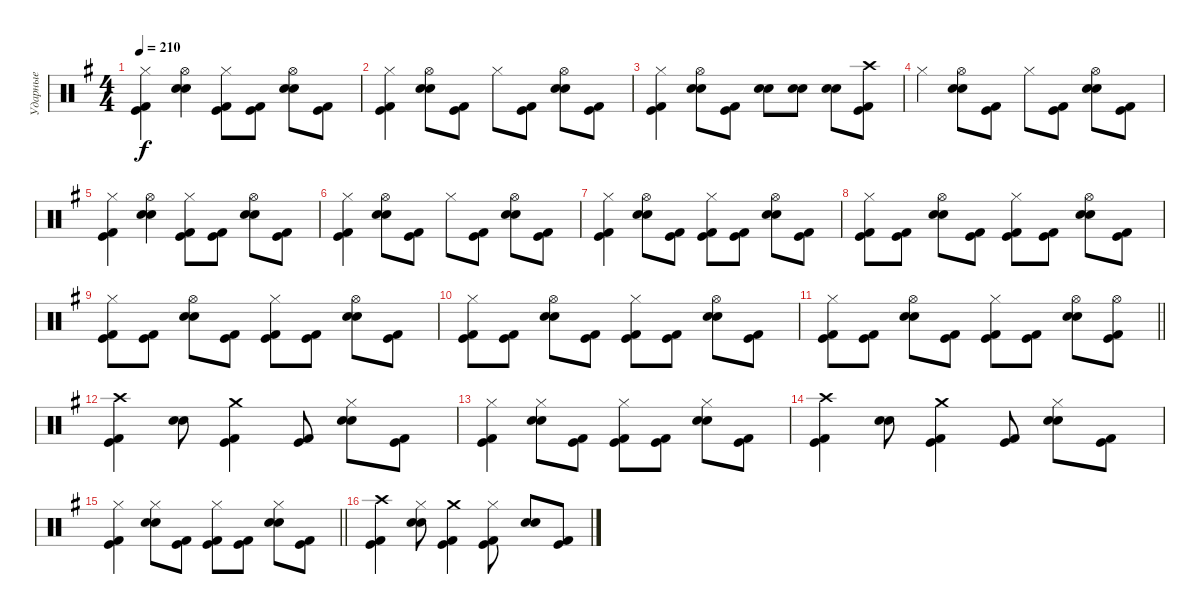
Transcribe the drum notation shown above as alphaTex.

\track ("Ударные" "Ударные") {instrument percussion}
\staff {score}
\articulation defaults
\ts (4 4)
\tempo 210
\clef neutral
\ks g
("Hi-Hat (closed)" "Kick (hit) 2" "Kick (hit)").4{dy f} ("Hi-Hat (open)" "Electric Snare (hit)" "Snare (hit) 2").4 ("Hi-Hat (closed)" "Kick (hit) 2" "Kick (hit)").8 ("Kick (hit) 2" "Kick (hit)").8 ("Hi-Hat (open)" "Electric Snare (hit)" "Snare (hit) 2").8 ("Kick (hit) 2" "Kick (hit)").8 |
("Hi-Hat (closed)" "Kick (hit) 2" "Kick (hit)").4 ("Hi-Hat (open)" "Electric Snare (hit)" "Snare (hit) 2").8 ("Kick (hit) 2" "Kick (hit)").8 "Hi-Hat (closed)".8 ("Kick (hit) 2" "Kick (hit)").8 ("Hi-Hat (open)" "Electric Snare (hit)" "Snare (hit) 2").8 ("Kick (hit) 2" "Kick (hit)").8 |
("Hi-Hat (closed)" "Kick (hit) 2" "Kick (hit)").4 ("Hi-Hat (open)" "Electric Snare (hit)" "Snare (hit) 2").8 ("Kick (hit) 2" "Kick (hit)").8 ("Electric Snare (hit)" "Snare (hit) 2").8 ("Electric Snare (hit)" "Snare (hit) 2").8 ("Electric Snare (hit)" "Snare (hit) 2").8 ("Crash high (hit)" "Kick (hit) 2" "Kick (hit)").8 |
"Hi-Hat (closed)".4 ("Hi-Hat (open)" "Electric Snare (hit)" "Snare (hit) 2").8 ("Kick (hit) 2" "Kick (hit)").8 "Hi-Hat (closed)".8 ("Kick (hit) 2" "Kick (hit)").8 ("Hi-Hat (open)" "Electric Snare (hit)" "Snare (hit) 2").8 ("Kick (hit) 2" "Kick (hit)").8 |
("Hi-Hat (closed)" "Kick (hit) 2" "Kick (hit)").4 ("Hi-Hat (open)" "Electric Snare (hit)" "Snare (hit) 2").4 ("Hi-Hat (closed)" "Kick (hit) 2" "Kick (hit)").8 ("Kick (hit) 2" "Kick (hit)").8 ("Hi-Hat (open)" "Electric Snare (hit)" "Snare (hit) 2").8 ("Kick (hit) 2" "Kick (hit)").8 |
("Hi-Hat (closed)" "Kick (hit) 2" "Kick (hit)").4 ("Hi-Hat (open)" "Electric Snare (hit)" "Snare (hit) 2").8 ("Kick (hit) 2" "Kick (hit)").8 "Hi-Hat (closed)".8 ("Kick (hit) 2" "Kick (hit)").8 ("Hi-Hat (open)" "Electric Snare (hit)" "Snare (hit) 2").8 ("Kick (hit) 2" "Kick (hit)").8 |
("Hi-Hat (closed)" "Kick (hit) 2" "Kick (hit)").4 ("Hi-Hat (open)" "Electric Snare (hit)" "Snare (hit) 2").8 ("Kick (hit) 2" "Kick (hit)").8 ("Hi-Hat (closed)" "Kick (hit) 2" "Kick (hit)").8 ("Kick (hit) 2" "Kick (hit)").8 ("Hi-Hat (open)" "Electric Snare (hit)" "Snare (hit) 2").8 ("Kick (hit) 2" "Kick (hit)").8 |
("Hi-Hat (closed)" "Kick (hit) 2" "Kick (hit)").8 ("Kick (hit) 2" "Kick (hit)").8 ("Hi-Hat (open)" "Electric Snare (hit)" "Snare (hit) 2").8 ("Kick (hit) 2" "Kick (hit)").8 ("Hi-Hat (closed)" "Kick (hit) 2" "Kick (hit)").8 ("Kick (hit) 2" "Kick (hit)").8 ("Hi-Hat (open)" "Electric Snare (hit)" "Snare (hit) 2").8 ("Kick (hit) 2" "Kick (hit)").8 |
("Hi-Hat (closed)" "Kick (hit) 2" "Kick (hit)").8 ("Kick (hit) 2" "Kick (hit)").8 ("Hi-Hat (open)" "Electric Snare (hit)" "Snare (hit) 2").8 ("Kick (hit) 2" "Kick (hit)").8 ("Hi-Hat (closed)" "Kick (hit) 2" "Kick (hit)").8 ("Kick (hit) 2" "Kick (hit)").8 ("Hi-Hat (open)" "Electric Snare (hit)" "Snare (hit) 2").8 ("Kick (hit) 2" "Kick (hit)").8 |
("Hi-Hat (closed)" "Kick (hit) 2" "Kick (hit)").8 ("Kick (hit) 2" "Kick (hit)").8 ("Hi-Hat (open)" "Electric Snare (hit)" "Snare (hit) 2").8 ("Kick (hit) 2" "Kick (hit)").8 ("Hi-Hat (closed)" "Kick (hit) 2" "Kick (hit)").8 ("Kick (hit) 2" "Kick (hit)").8 ("Hi-Hat (open)" "Electric Snare (hit)" "Snare (hit) 2").8 ("Kick (hit) 2" "Kick (hit)").8 |
\barLineRight lightlight
("Hi-Hat (closed)" "Kick (hit) 2" "Kick (hit)").8 ("Kick (hit) 2" "Kick (hit)").8 ("Hi-Hat (open)" "Electric Snare (hit)" "Snare (hit) 2").8 ("Kick (hit) 2" "Kick (hit)").8 ("Hi-Hat (closed)" "Kick (hit) 2" "Kick (hit)").8 ("Kick (hit) 2" "Kick (hit)").8 ("Hi-Hat (open)" "Electric Snare (hit)" "Snare (hit) 2").8 ("Hi-Hat (open)" "Kick (hit) 2" "Kick (hit)").8 |
\section ("" "")
("Crash high (hit)" "Kick (hit) 2" "Kick (hit)").4 ("Electric Snare (hit)" "Snare (hit) 2").8 ("Crash medium (hit)" "Kick (hit) 2" "Kick (hit)").4 ("Kick (hit) 2" "Kick (hit)").8 ("Hi-Hat (closed)" "Electric Snare (hit)" "Snare (hit) 2").8 ("Kick (hit) 2" "Kick (hit)").8 |
("Hi-Hat (closed)" "Kick (hit) 2" "Kick (hit)").4 ("Hi-Hat (closed)" "Electric Snare (hit)" "Snare (hit) 2").8 ("Kick (hit) 2" "Kick (hit)").8 ("Hi-Hat (closed)" "Kick (hit) 2" "Kick (hit)").8 ("Kick (hit) 2" "Kick (hit)").8 ("Hi-Hat (closed)" "Electric Snare (hit)" "Snare (hit) 2").8 ("Kick (hit) 2" "Kick (hit)").8 |
("Crash high (hit)" "Kick (hit) 2" "Kick (hit)").4 ("Electric Snare (hit)" "Snare (hit) 2").8 ("Crash medium (hit)" "Kick (hit) 2" "Kick (hit)").4 ("Kick (hit) 2" "Kick (hit)").8 ("Hi-Hat (closed)" "Electric Snare (hit)" "Snare (hit) 2").8 ("Kick (hit) 2" "Kick (hit)").8 |
\barLineRight lightlight
("Hi-Hat (closed)" "Kick (hit) 2" "Kick (hit)").4 ("Hi-Hat (closed)" "Electric Snare (hit)" "Snare (hit) 2").8 ("Kick (hit) 2" "Kick (hit)").8 ("Hi-Hat (closed)" "Kick (hit) 2" "Kick (hit)").8 ("Kick (hit) 2" "Kick (hit)").8 ("Hi-Hat (closed)" "Electric Snare (hit)" "Snare (hit) 2").8 ("Kick (hit) 2" "Kick (hit)").8 |
("Crash high (hit)" "Kick (hit) 2" "Kick (hit)").4 ("Hi-Hat (closed)" "Electric Snare (hit)" "Snare (hit) 2").8 ("Crash medium (hit)" "Kick (hit) 2" "Kick (hit)").4 ("Hi-Hat (closed)" "Kick (hit) 2" "Kick (hit)").8 ("Electric Snare (hit)" "Snare (hit) 2").8 ("Kick (hit) 2" "Kick (hit)").8
